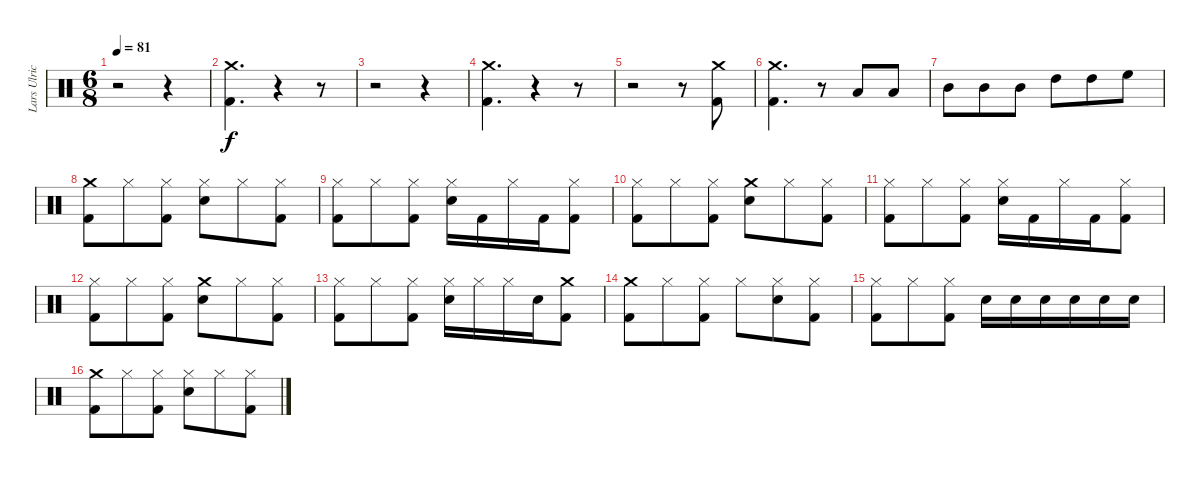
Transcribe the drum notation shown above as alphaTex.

\track ("Lars Ulrich (Drums)" "Lars Ulric") {instrument percussion}
\staff {score}
\articulation defaults
\ts (6 8)
\tempo 81
\clef neutral
\ks c
r.2{dy f} r.4 |
("Kick (hit) 2" "Crash medium (hit)").4{d} r.4 r.8 |
r.2 r.4 |
("Crash medium (hit)" "Kick (hit) 2").4{d} r.4 r.8 |
r.2 r.8 ("Kick (hit) 2" "Crash medium (hit)").8 |
("Kick (hit) 2" "Crash medium (hit)").4{d} r.8 "Low Tom (hit)".8 "Low Tom (hit)".8 |
"Mid Tom (hit)".8 "Mid Tom (hit)".8 "Mid Tom (hit)".8 "High Tom (hit)".8 "High Tom (hit)".8 "High Floor Tom (hit)".8 |
("Kick (hit) 2" "Crash medium (hit)").8 "Hi-Hat (closed)".8 ("Kick (hit) 2" "Hi-Hat (closed)").8 ("Hi-Hat (closed)" "Snare (hit) 2").8 "Hi-Hat (closed)".8 ("Kick (hit) 2" "Hi-Hat (closed)").8 |
("Hi-Hat (closed)" "Kick (hit) 2").8 "Hi-Hat (closed)".8 ("Kick (hit) 2" "Hi-Hat (closed)").8 ("Hi-Hat (closed)" "Snare (hit) 2").16 "Kick (hit) 2".16 "Hi-Hat (closed)".16 "Kick (hit) 2".16 ("Kick (hit) 2" "Hi-Hat (closed)").8 |
("Hi-Hat (closed)" "Kick (hit) 2").8 "Hi-Hat (closed)".8 ("Hi-Hat (closed)" "Kick (hit) 2").8 ("Crash medium (hit)" "Snare (hit) 2").8 "Hi-Hat (closed)".8 ("Kick (hit) 2" "Hi-Hat (closed)").8 |
("Hi-Hat (closed)" "Kick (hit) 2").8 "Hi-Hat (closed)".8 ("Kick (hit) 2" "Hi-Hat (closed)").8 ("Hi-Hat (closed)" "Snare (hit) 2").16 "Kick (hit) 2".16 "Hi-Hat (closed)".16 "Kick (hit) 2".16 ("Kick (hit) 2" "Hi-Hat (closed)").8 |
("Hi-Hat (closed)" "Kick (hit) 2").8 "Hi-Hat (closed)".8 ("Hi-Hat (closed)" "Kick (hit) 2").8 ("Crash medium (hit)" "Snare (hit) 2").8 "Hi-Hat (closed)".8 ("Kick (hit) 2" "Hi-Hat (closed)").8 |
("Kick (hit) 2" "Hi-Hat (closed)").8 "Hi-Hat (closed)".8 ("Kick (hit) 2" "Hi-Hat (closed)").8 ("Hi-Hat (closed)" "Snare (hit) 2").16 "Hi-Hat (closed)".16 "Hi-Hat (closed)".16 "Snare (hit) 2".16 ("Crash medium (hit)" "Kick (hit) 2").8 |
("Kick (hit) 2" "Crash medium (hit)").8 "Hi-Hat (closed)".8 ("Kick (hit) 2" "Hi-Hat (closed)").8 "Hi-Hat (closed)".8 ("Snare (hit) 2" "Hi-Hat (closed)").8 ("Kick (hit) 2" "Hi-Hat (closed)").8 |
("Hi-Hat (closed)" "Kick (hit) 2").8 "Hi-Hat (closed)".8 ("Hi-Hat (closed)" "Kick (hit) 2").8 "Snare (hit) 2".16 "Snare (hit) 2".16 "Snare (hit) 2".16 "Snare (hit) 2".16 "Snare (hit) 2".16 "Snare (hit) 2".16 |
("Crash medium (hit)" "Kick (hit) 2").8 "Hi-Hat (closed)".8 ("Kick (hit) 2" "Hi-Hat (closed)").8 ("Snare (hit) 2" "Hi-Hat (closed)").8 "Hi-Hat (closed)".8 ("Kick (hit) 2" "Hi-Hat (closed)").8
